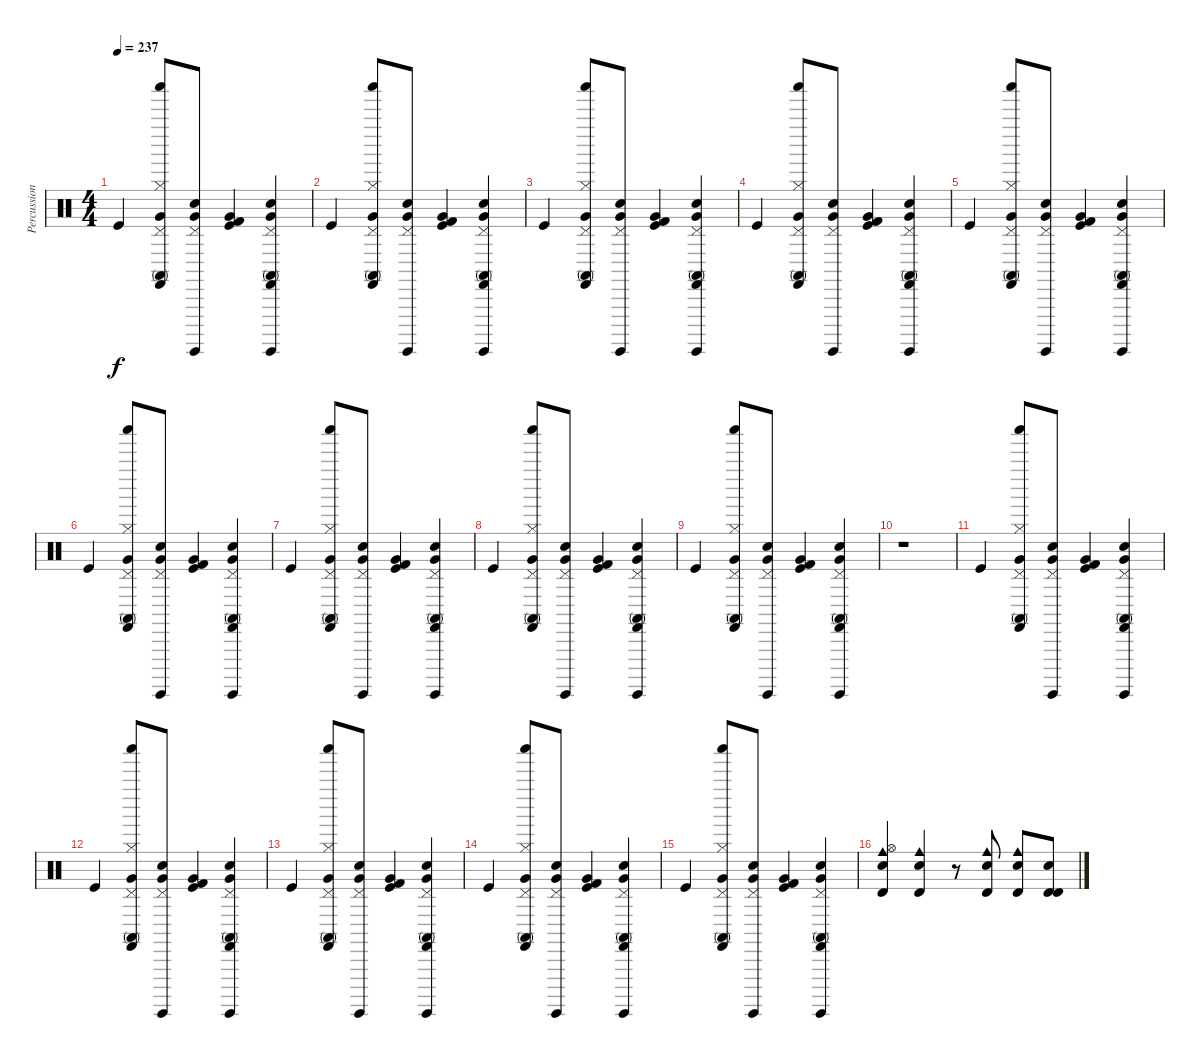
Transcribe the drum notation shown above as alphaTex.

\track ("Percussions" "Percussion") {instrument percussion}
\staff {score}
\articulation defaults
\ts (4 4)
\tempo 237
\clef neutral
\ks c "Kick (hit)".4{dy f}
("Hi-Hat (closed)" "Shaker (hit)" "Pedal Hi-Hat (hit)" "Very Low Tom (hit)" "Conga high (mute)" "Castanets (hit)").8 ("Hand Clap (hit)" "Surdo (hit)" "Pedal Hi-Hat (hit)" "Very Low Tom (hit)").8 ("Kick (hit)" "Kick (hit) 2" "Very Low Tom (hit)").4 ("Hand Clap (hit)" "Surdo (hit)" "Pedal Hi-Hat (hit)" "Very Low Tom (hit)" "Conga high (mute)" "Castanets (hit)").4 |
"Kick (hit)".4 ("Hi-Hat (closed)" "Shaker (hit)" "Pedal Hi-Hat (hit)" "Very Low Tom (hit)" "Conga high (mute)" "Castanets (hit)").8 ("Hand Clap (hit)" "Surdo (hit)" "Pedal Hi-Hat (hit)" "Very Low Tom (hit)").8 ("Kick (hit)" "Kick (hit) 2" "Very Low Tom (hit)").4 ("Hand Clap (hit)" "Surdo (hit)" "Pedal Hi-Hat (hit)" "Very Low Tom (hit)" "Conga high (mute)" "Castanets (hit)").4 |
"Kick (hit)".4 ("Hi-Hat (closed)" "Shaker (hit)" "Pedal Hi-Hat (hit)" "Very Low Tom (hit)" "Conga high (mute)" "Castanets (hit)").8 ("Hand Clap (hit)" "Surdo (hit)" "Pedal Hi-Hat (hit)" "Very Low Tom (hit)").8 ("Kick (hit)" "Kick (hit) 2" "Very Low Tom (hit)").4 ("Hand Clap (hit)" "Surdo (hit)" "Pedal Hi-Hat (hit)" "Very Low Tom (hit)" "Conga high (mute)" "Castanets (hit)").4 |
"Kick (hit)".4 ("Hi-Hat (closed)" "Shaker (hit)" "Pedal Hi-Hat (hit)" "Very Low Tom (hit)" "Conga high (mute)" "Castanets (hit)").8 ("Hand Clap (hit)" "Surdo (hit)" "Pedal Hi-Hat (hit)" "Very Low Tom (hit)").8 ("Kick (hit)" "Kick (hit) 2" "Very Low Tom (hit)").4 ("Hand Clap (hit)" "Surdo (hit)" "Pedal Hi-Hat (hit)" "Very Low Tom (hit)" "Conga high (mute)" "Castanets (hit)").4 |
"Kick (hit)".4 ("Hi-Hat (closed)" "Shaker (hit)" "Pedal Hi-Hat (hit)" "Very Low Tom (hit)" "Conga high (mute)" "Castanets (hit)").8 ("Hand Clap (hit)" "Surdo (hit)" "Pedal Hi-Hat (hit)" "Very Low Tom (hit)").8 ("Kick (hit)" "Kick (hit) 2" "Very Low Tom (hit)").4 ("Hand Clap (hit)" "Surdo (hit)" "Pedal Hi-Hat (hit)" "Very Low Tom (hit)" "Conga high (mute)" "Castanets (hit)").4 |
"Kick (hit)".4 ("Hi-Hat (closed)" "Shaker (hit)" "Pedal Hi-Hat (hit)" "Very Low Tom (hit)" "Conga high (mute)" "Castanets (hit)").8 ("Hand Clap (hit)" "Surdo (hit)" "Pedal Hi-Hat (hit)" "Very Low Tom (hit)").8 ("Kick (hit)" "Kick (hit) 2" "Very Low Tom (hit)").4 ("Hand Clap (hit)" "Surdo (hit)" "Pedal Hi-Hat (hit)" "Very Low Tom (hit)" "Conga high (mute)" "Castanets (hit)").4 |
"Kick (hit)".4 ("Hi-Hat (closed)" "Shaker (hit)" "Pedal Hi-Hat (hit)" "Very Low Tom (hit)" "Conga high (mute)" "Castanets (hit)").8 ("Hand Clap (hit)" "Surdo (hit)" "Pedal Hi-Hat (hit)" "Very Low Tom (hit)").8 ("Kick (hit)" "Kick (hit) 2" "Very Low Tom (hit)").4 ("Hand Clap (hit)" "Surdo (hit)" "Pedal Hi-Hat (hit)" "Very Low Tom (hit)" "Conga high (mute)" "Castanets (hit)").4 |
"Kick (hit)".4 ("Hi-Hat (closed)" "Shaker (hit)" "Pedal Hi-Hat (hit)" "Very Low Tom (hit)" "Conga high (mute)" "Castanets (hit)").8 ("Hand Clap (hit)" "Surdo (hit)" "Pedal Hi-Hat (hit)" "Very Low Tom (hit)").8 ("Kick (hit)" "Kick (hit) 2" "Very Low Tom (hit)").4 ("Hand Clap (hit)" "Surdo (hit)" "Pedal Hi-Hat (hit)" "Very Low Tom (hit)" "Conga high (mute)" "Castanets (hit)").4 |
"Kick (hit)".4 ("Hi-Hat (closed)" "Shaker (hit)" "Pedal Hi-Hat (hit)" "Very Low Tom (hit)" "Conga high (mute)" "Castanets (hit)").8 ("Hand Clap (hit)" "Surdo (hit)" "Pedal Hi-Hat (hit)" "Very Low Tom (hit)").8 ("Kick (hit)" "Kick (hit) 2" "Very Low Tom (hit)").4 ("Hand Clap (hit)" "Surdo (hit)" "Pedal Hi-Hat (hit)" "Very Low Tom (hit)" "Conga high (mute)" "Castanets (hit)").4 |
r.1 |
"Kick (hit)".4 ("Hi-Hat (closed)" "Shaker (hit)" "Pedal Hi-Hat (hit)" "Very Low Tom (hit)" "Conga high (mute)" "Castanets (hit)").8 ("Hand Clap (hit)" "Surdo (hit)" "Pedal Hi-Hat (hit)" "Very Low Tom (hit)").8 ("Kick (hit)" "Kick (hit) 2" "Very Low Tom (hit)").4 ("Hand Clap (hit)" "Surdo (hit)" "Pedal Hi-Hat (hit)" "Very Low Tom (hit)" "Conga high (mute)" "Castanets (hit)").4 |
"Kick (hit)".4 ("Hi-Hat (closed)" "Shaker (hit)" "Pedal Hi-Hat (hit)" "Very Low Tom (hit)" "Conga high (mute)" "Castanets (hit)").8 ("Hand Clap (hit)" "Surdo (hit)" "Pedal Hi-Hat (hit)" "Very Low Tom (hit)").8 ("Kick (hit)" "Kick (hit) 2" "Very Low Tom (hit)").4 ("Hand Clap (hit)" "Surdo (hit)" "Pedal Hi-Hat (hit)" "Very Low Tom (hit)" "Conga high (mute)" "Castanets (hit)").4 |
"Kick (hit)".4 ("Hi-Hat (closed)" "Shaker (hit)" "Pedal Hi-Hat (hit)" "Very Low Tom (hit)" "Conga high (mute)" "Castanets (hit)").8 ("Hand Clap (hit)" "Surdo (hit)" "Pedal Hi-Hat (hit)" "Very Low Tom (hit)").8 ("Kick (hit)" "Kick (hit) 2" "Very Low Tom (hit)").4 ("Hand Clap (hit)" "Surdo (hit)" "Pedal Hi-Hat (hit)" "Very Low Tom (hit)" "Conga high (mute)" "Castanets (hit)").4 |
"Kick (hit)".4 ("Hi-Hat (closed)" "Shaker (hit)" "Pedal Hi-Hat (hit)" "Very Low Tom (hit)" "Conga high (mute)" "Castanets (hit)").8 ("Hand Clap (hit)" "Surdo (hit)" "Pedal Hi-Hat (hit)" "Very Low Tom (hit)").8 ("Kick (hit)" "Kick (hit) 2" "Very Low Tom (hit)").4 ("Hand Clap (hit)" "Surdo (hit)" "Pedal Hi-Hat (hit)" "Very Low Tom (hit)" "Conga high (mute)" "Castanets (hit)").4 |
"Kick (hit)".4 ("Hi-Hat (closed)" "Shaker (hit)" "Pedal Hi-Hat (hit)" "Very Low Tom (hit)" "Conga high (mute)" "Castanets (hit)").8 ("Hand Clap (hit)" "Surdo (hit)" "Pedal Hi-Hat (hit)" "Very Low Tom (hit)").8 ("Kick (hit)" "Kick (hit) 2" "Very Low Tom (hit)").4 ("Hand Clap (hit)" "Surdo (hit)" "Pedal Hi-Hat (hit)" "Very Low Tom (hit)" "Conga high (mute)" "Castanets (hit)").4 |
("Hi-Hat (open)" "Cowbell medium (hit)" "Timbale high (hit)" "Hand Clap (hit)").4 ("Cowbell medium (hit)" "Timbale high (hit)" "Hand Clap (hit)").4 r.8 ("Cowbell medium (hit)" "Timbale high (hit)" "Hand Clap (hit)").8 ("Cowbell medium (hit)" "Timbale high (hit)" "Hand Clap (hit)").8 ("Timbale high (hit)" "Timbale high (hit)" "Hand Clap (hit)").8
